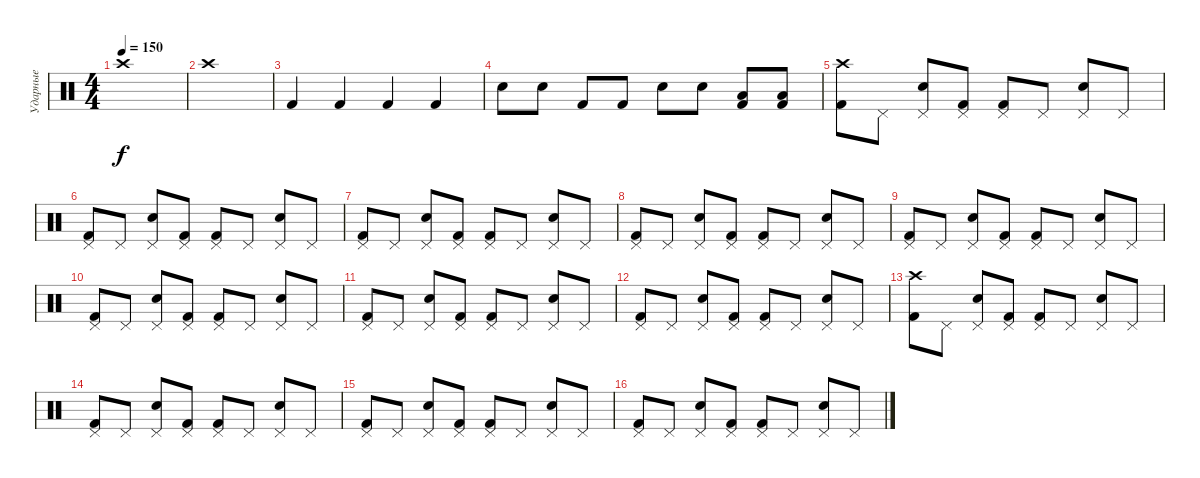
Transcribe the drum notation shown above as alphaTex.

\track ("Ударные" "Ударные") {instrument percussion}
\staff {score}
\articulation defaults
\ts (4 4)
\tempo 150
\clef neutral
\ks c "Crash high (hit)".1{dy f}
|
"Crash high (hit)".1 |
"Kick (hit) 2".4 "Kick (hit) 2".4 "Kick (hit) 2".4 "Kick (hit) 2".4 |
"Snare (hit) 2".8 "Snare (hit) 2".8 "Kick (hit) 2".8 "Kick (hit) 2".8 "Snare (hit) 2".8 "Snare (hit) 2".8 ("Low Floor Tom (hit)" "Kick (hit) 2").8 ("Low Floor Tom (hit)" "Kick (hit) 2").8 |
("Crash high (hit)" "Kick (hit) 2").8 "Pedal Hi-Hat (hit)".8 ("Pedal Hi-Hat (hit)" "Snare (hit) 2").8 ("Pedal Hi-Hat (hit)" "Kick (hit) 2").8 ("Pedal Hi-Hat (hit)" "Kick (hit) 2").8 "Pedal Hi-Hat (hit)".8 ("Pedal Hi-Hat (hit)" "Snare (hit) 2").8 "Pedal Hi-Hat (hit)".8 |
("Pedal Hi-Hat (hit)" "Kick (hit) 2").8 "Pedal Hi-Hat (hit)".8 ("Pedal Hi-Hat (hit)" "Snare (hit) 2").8 ("Pedal Hi-Hat (hit)" "Kick (hit) 2").8 ("Pedal Hi-Hat (hit)" "Kick (hit) 2").8 "Pedal Hi-Hat (hit)".8 ("Pedal Hi-Hat (hit)" "Snare (hit) 2").8 "Pedal Hi-Hat (hit)".8 |
("Pedal Hi-Hat (hit)" "Kick (hit) 2").8 "Pedal Hi-Hat (hit)".8 ("Pedal Hi-Hat (hit)" "Snare (hit) 2").8 ("Pedal Hi-Hat (hit)" "Kick (hit) 2").8 ("Pedal Hi-Hat (hit)" "Kick (hit) 2").8 "Pedal Hi-Hat (hit)".8 ("Pedal Hi-Hat (hit)" "Snare (hit) 2").8 "Pedal Hi-Hat (hit)".8 |
("Pedal Hi-Hat (hit)" "Kick (hit) 2").8 "Pedal Hi-Hat (hit)".8 ("Pedal Hi-Hat (hit)" "Snare (hit) 2").8 ("Pedal Hi-Hat (hit)" "Kick (hit) 2").8 ("Pedal Hi-Hat (hit)" "Kick (hit) 2").8 "Pedal Hi-Hat (hit)".8 ("Pedal Hi-Hat (hit)" "Snare (hit) 2").8 "Pedal Hi-Hat (hit)".8 |
("Pedal Hi-Hat (hit)" "Kick (hit) 2").8 "Pedal Hi-Hat (hit)".8 ("Pedal Hi-Hat (hit)" "Snare (hit) 2").8 ("Pedal Hi-Hat (hit)" "Kick (hit) 2").8 ("Pedal Hi-Hat (hit)" "Kick (hit) 2").8 "Pedal Hi-Hat (hit)".8 ("Pedal Hi-Hat (hit)" "Snare (hit) 2").8 "Pedal Hi-Hat (hit)".8 |
("Pedal Hi-Hat (hit)" "Kick (hit) 2").8 "Pedal Hi-Hat (hit)".8 ("Pedal Hi-Hat (hit)" "Snare (hit) 2").8 ("Pedal Hi-Hat (hit)" "Kick (hit) 2").8 ("Pedal Hi-Hat (hit)" "Kick (hit) 2").8 "Pedal Hi-Hat (hit)".8 ("Pedal Hi-Hat (hit)" "Snare (hit) 2").8 "Pedal Hi-Hat (hit)".8 |
("Pedal Hi-Hat (hit)" "Kick (hit) 2").8 "Pedal Hi-Hat (hit)".8 ("Pedal Hi-Hat (hit)" "Snare (hit) 2").8 ("Pedal Hi-Hat (hit)" "Kick (hit) 2").8 ("Pedal Hi-Hat (hit)" "Kick (hit) 2").8 "Pedal Hi-Hat (hit)".8 ("Pedal Hi-Hat (hit)" "Snare (hit) 2").8 "Pedal Hi-Hat (hit)".8 |
("Pedal Hi-Hat (hit)" "Kick (hit) 2").8 "Pedal Hi-Hat (hit)".8 ("Pedal Hi-Hat (hit)" "Snare (hit) 2").8 ("Pedal Hi-Hat (hit)" "Kick (hit) 2").8 ("Pedal Hi-Hat (hit)" "Kick (hit) 2").8 "Pedal Hi-Hat (hit)".8 ("Pedal Hi-Hat (hit)" "Snare (hit) 2").8 "Pedal Hi-Hat (hit)".8 |
("Crash high (hit)" "Kick (hit) 2").8 "Pedal Hi-Hat (hit)".8 ("Pedal Hi-Hat (hit)" "Snare (hit) 2").8 ("Pedal Hi-Hat (hit)" "Kick (hit) 2").8 ("Pedal Hi-Hat (hit)" "Kick (hit) 2").8 "Pedal Hi-Hat (hit)".8 ("Pedal Hi-Hat (hit)" "Snare (hit) 2").8 "Pedal Hi-Hat (hit)".8 |
("Pedal Hi-Hat (hit)" "Kick (hit) 2").8 "Pedal Hi-Hat (hit)".8 ("Pedal Hi-Hat (hit)" "Snare (hit) 2").8 ("Pedal Hi-Hat (hit)" "Kick (hit) 2").8 ("Pedal Hi-Hat (hit)" "Kick (hit) 2").8 "Pedal Hi-Hat (hit)".8 ("Pedal Hi-Hat (hit)" "Snare (hit) 2").8 "Pedal Hi-Hat (hit)".8 |
("Pedal Hi-Hat (hit)" "Kick (hit) 2").8 "Pedal Hi-Hat (hit)".8 ("Pedal Hi-Hat (hit)" "Snare (hit) 2").8 ("Pedal Hi-Hat (hit)" "Kick (hit) 2").8 ("Pedal Hi-Hat (hit)" "Kick (hit) 2").8 "Pedal Hi-Hat (hit)".8 ("Pedal Hi-Hat (hit)" "Snare (hit) 2").8 "Pedal Hi-Hat (hit)".8 |
("Pedal Hi-Hat (hit)" "Kick (hit) 2").8 "Pedal Hi-Hat (hit)".8 ("Pedal Hi-Hat (hit)" "Snare (hit) 2").8 ("Pedal Hi-Hat (hit)" "Kick (hit) 2").8 ("Pedal Hi-Hat (hit)" "Kick (hit) 2").8 "Pedal Hi-Hat (hit)".8 ("Pedal Hi-Hat (hit)" "Snare (hit) 2").8 "Pedal Hi-Hat (hit)".8
